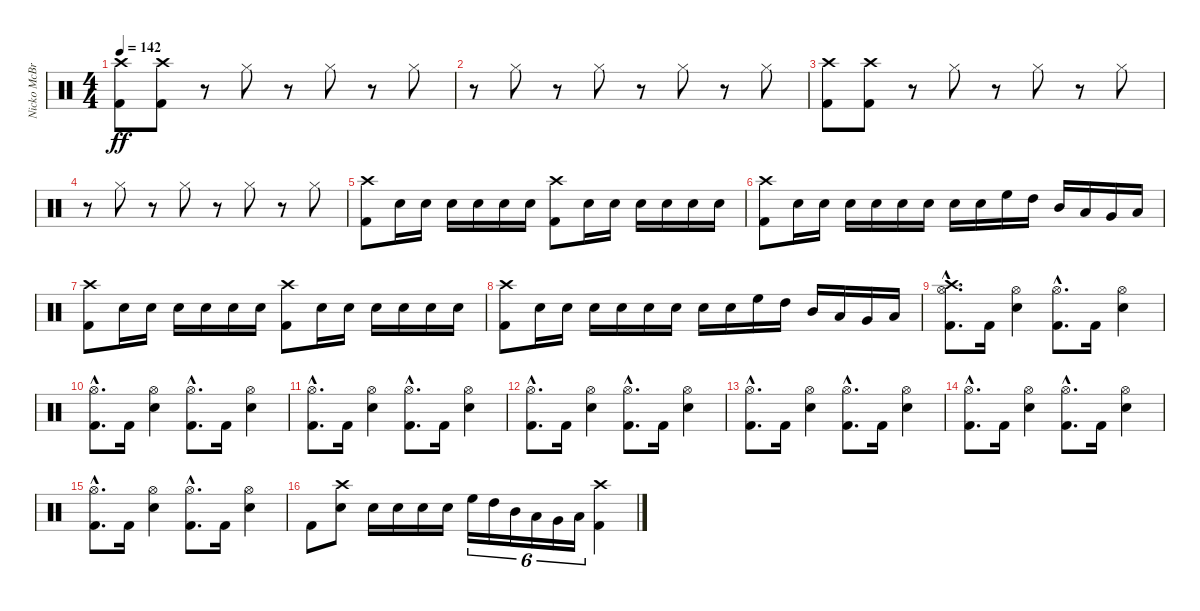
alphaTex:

\track ("Nicko McBrain" "Nicko McBr") {instrument percussion}
\staff {score}
\articulation defaults
\ts (4 4)
\tempo 142
\clef neutral
\ks c
("Kick (hit) 2" "Crash high (hit)").8{dy ff} ("Kick (hit) 2" "Crash high (hit)").8 r.8 "Hi-Hat (closed)".8 r.8 "Hi-Hat (closed)".8 r.8 "Hi-Hat (closed)".8 |
r.8 "Hi-Hat (closed)".8 r.8 "Hi-Hat (closed)".8 r.8 "Hi-Hat (closed)".8 r.8 "Hi-Hat (closed)".8 |
("Kick (hit) 2" "Crash high (hit)").8 ("Kick (hit) 2" "Crash high (hit)").8 r.8 "Hi-Hat (closed)".8 r.8 "Hi-Hat (closed)".8 r.8 "Hi-Hat (closed)".8 |
r.8 "Hi-Hat (closed)".8 r.8 "Hi-Hat (closed)".8 r.8 "Hi-Hat (closed)".8 r.8 "Hi-Hat (closed)".8 |
("Kick (hit) 2" "Crash high (hit)").8 "Snare (hit) 2".16 "Snare (hit) 2".16 "Snare (hit) 2".16 "Snare (hit) 2".16 "Snare (hit) 2".16 "Snare (hit) 2".16 ("Kick (hit) 2" "Crash high (hit)").8 "Snare (hit) 2".16 "Snare (hit) 2".16 "Snare (hit) 2".16 "Snare (hit) 2".16 "Snare (hit) 2".16 "Snare (hit) 2".16 |
("Kick (hit) 2" "Crash high (hit)").8 "Snare (hit) 2".16 "Snare (hit) 2".16 "Snare (hit) 2".16 "Snare (hit) 2".16 "Snare (hit) 2".16 "Snare (hit) 2".16 "Snare (hit) 2".16 "Snare (hit) 2".16 "High Floor Tom (hit)".16 "High Tom (hit)".16 "Mid Tom (hit)".16 "Low Tom (hit)".16 "Very Low Tom (hit)".16 "Low Floor Tom (hit)".16 |
("Kick (hit) 2" "Crash high (hit)").8 "Snare (hit) 2".16 "Snare (hit) 2".16 "Snare (hit) 2".16 "Snare (hit) 2".16 "Snare (hit) 2".16 "Snare (hit) 2".16 ("Kick (hit) 2" "Crash high (hit)").8 "Snare (hit) 2".16 "Snare (hit) 2".16 "Snare (hit) 2".16 "Snare (hit) 2".16 "Snare (hit) 2".16 "Snare (hit) 2".16 |
("Kick (hit) 2" "Crash high (hit)").8 "Snare (hit) 2".16 "Snare (hit) 2".16 "Snare (hit) 2".16 "Snare (hit) 2".16 "Snare (hit) 2".16 "Snare (hit) 2".16 "Snare (hit) 2".16 "Snare (hit) 2".16 "High Floor Tom (hit)".16 "High Tom (hit)".16 "Mid Tom (hit)".16 "Low Tom (hit)".16 "Very Low Tom (hit)".16 "Low Floor Tom (hit)".16 |
("Kick (hit) 2"{hac} "Hi-Hat (open)"{hac} "Crash high (hit)"{hac}).8{d} "Kick (hit) 2".16 ("Snare (hit) 2" "Hi-Hat (open)").4 ("Kick (hit) 2"{hac} "Hi-Hat (open)"{hac}).8{d} "Kick (hit) 2".16 ("Snare (hit) 2" "Hi-Hat (open)").4 |
("Kick (hit) 2"{hac} "Hi-Hat (open)"{hac}).8{d} "Kick (hit) 2".16 ("Snare (hit) 2" "Hi-Hat (open)").4 ("Kick (hit) 2"{hac} "Hi-Hat (open)"{hac}).8{d} "Kick (hit) 2".16 ("Snare (hit) 2" "Hi-Hat (open)").4 |
("Kick (hit) 2"{hac} "Hi-Hat (open)"{hac}).8{d} "Kick (hit) 2".16 ("Snare (hit) 2" "Hi-Hat (open)").4 ("Kick (hit) 2"{hac} "Hi-Hat (open)"{hac}).8{d} "Kick (hit) 2".16 ("Snare (hit) 2" "Hi-Hat (open)").4 |
("Kick (hit) 2"{hac} "Hi-Hat (open)"{hac}).8{d} "Kick (hit) 2".16 ("Snare (hit) 2" "Hi-Hat (open)").4 ("Kick (hit) 2"{hac} "Hi-Hat (open)"{hac}).8{d} "Kick (hit) 2".16 ("Snare (hit) 2" "Hi-Hat (open)").4 |
("Kick (hit) 2"{hac} "Hi-Hat (open)"{hac}).8{d} "Kick (hit) 2".16 ("Snare (hit) 2" "Hi-Hat (open)").4 ("Kick (hit) 2"{hac} "Hi-Hat (open)"{hac}).8{d} "Kick (hit) 2".16 ("Snare (hit) 2" "Hi-Hat (open)").4 |
("Kick (hit) 2"{hac} "Hi-Hat (open)"{hac}).8{d} "Kick (hit) 2".16 ("Snare (hit) 2" "Hi-Hat (open)").4 ("Kick (hit) 2"{hac} "Hi-Hat (open)"{hac}).8{d} "Kick (hit) 2".16 ("Snare (hit) 2" "Hi-Hat (open)").4 |
("Kick (hit) 2"{hac} "Hi-Hat (open)"{hac}).8{d} "Kick (hit) 2".16 ("Snare (hit) 2" "Hi-Hat (open)").4 ("Kick (hit) 2"{hac} "Hi-Hat (open)"{hac}).8{d} "Kick (hit) 2".16 ("Snare (hit) 2" "Hi-Hat (open)").4 |
"Kick (hit) 2".8 ("Snare (hit) 2" "Crash high (hit)").8 "Snare (hit) 2".16 "Snare (hit) 2".16 "Snare (hit) 2".16 "Snare (hit) 2".16 "High Floor Tom (hit)".16{tu (6 4)} "High Tom (hit)".16{tu (6 4)} "Mid Tom (hit)".16{tu (6 4)} "Low Tom (hit)".16{tu (6 4)} "Very Low Tom (hit)".16{tu (6 4)} "Low Floor Tom (hit)".16{tu (6 4)} ("Kick (hit) 2" "Crash high (hit)").4
